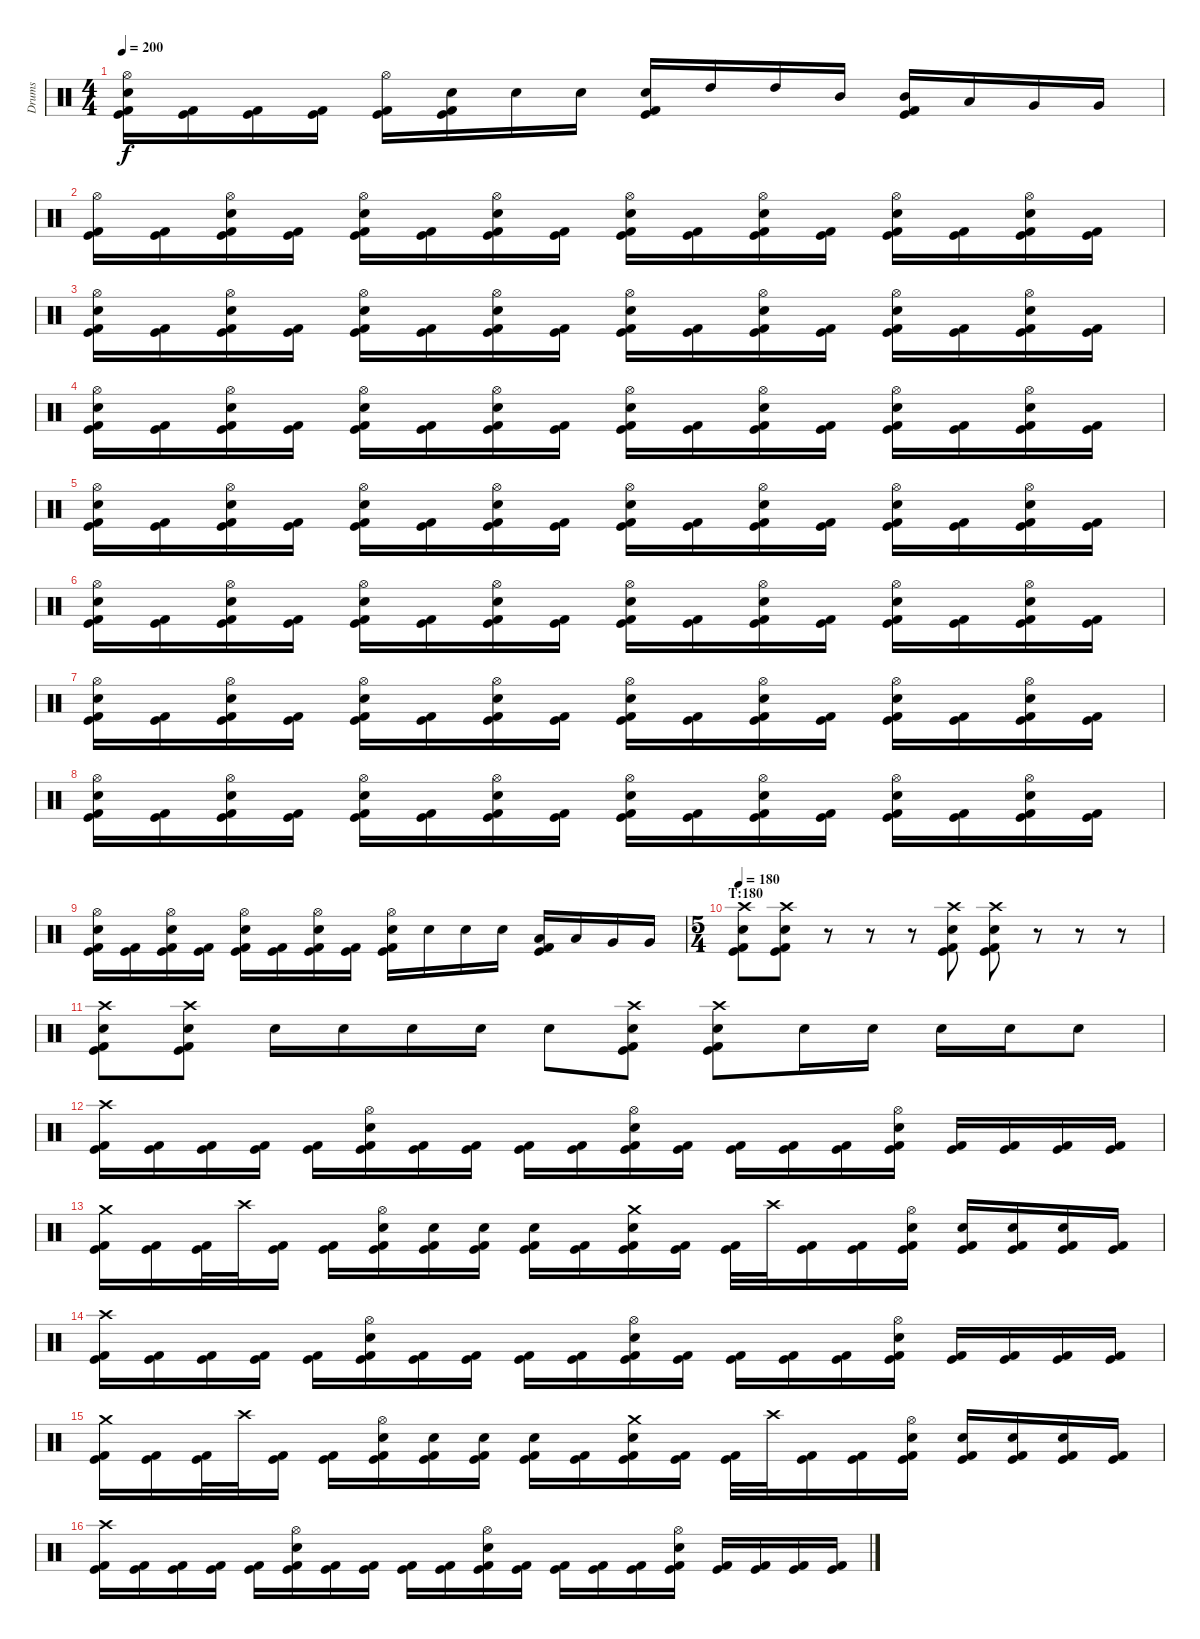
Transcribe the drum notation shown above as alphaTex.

\track ("Drums" "Drums") {instrument percussion}
\staff {score}
\articulation defaults
\ts (4 4)
\tempo 200
\clef neutral
\ks c
("Hi-Hat (open)" "Electric Snare (hit)" "Kick (hit)" "Kick (hit) 2").16{dy f} ("Kick (hit)" "Kick (hit) 2").16 ("Kick (hit)" "Kick (hit) 2").16 ("Kick (hit)" "Kick (hit) 2").16 ("Hi-Hat (open)" "Kick (hit)" "Kick (hit) 2").16 ("Electric Snare (hit)" "Kick (hit)" "Kick (hit) 2").16 "Electric Snare (hit)".16 "Electric Snare (hit)".16 ("Electric Snare (hit)" "Kick (hit)" "Kick (hit) 2").16 "High Tom (hit)".16 "High Tom (hit)".16 "Mid Tom (hit)".16 ("Mid Tom (hit)" "Kick (hit)" "Kick (hit) 2").16 "Low Tom (hit)".16 "Very Low Tom (hit)".16 "Very Low Tom (hit)".16 |
("Hi-Hat (open)" "Kick (hit)" "Kick (hit) 2").16 ("Kick (hit)" "Kick (hit) 2").16 ("Hi-Hat (open)" "Electric Snare (hit)" "Kick (hit)" "Kick (hit) 2").16 ("Kick (hit)" "Kick (hit) 2").16 ("Hi-Hat (open)" "Electric Snare (hit)" "Kick (hit)" "Kick (hit) 2").16 ("Kick (hit)" "Kick (hit) 2").16 ("Hi-Hat (open)" "Electric Snare (hit)" "Kick (hit)" "Kick (hit) 2").16 ("Kick (hit)" "Kick (hit) 2").16 ("Hi-Hat (open)" "Electric Snare (hit)" "Kick (hit)" "Kick (hit) 2").16 ("Kick (hit)" "Kick (hit) 2").16 ("Hi-Hat (open)" "Electric Snare (hit)" "Kick (hit)" "Kick (hit) 2").16 ("Kick (hit)" "Kick (hit) 2").16 ("Hi-Hat (open)" "Electric Snare (hit)" "Kick (hit)" "Kick (hit) 2").16 ("Kick (hit)" "Kick (hit) 2").16 ("Hi-Hat (open)" "Electric Snare (hit)" "Kick (hit)" "Kick (hit) 2").16 ("Kick (hit)" "Kick (hit) 2").16 |
("Hi-Hat (open)" "Electric Snare (hit)" "Kick (hit)" "Kick (hit) 2").16 ("Kick (hit)" "Kick (hit) 2").16 ("Hi-Hat (open)" "Electric Snare (hit)" "Kick (hit)" "Kick (hit) 2").16 ("Kick (hit)" "Kick (hit) 2").16 ("Hi-Hat (open)" "Electric Snare (hit)" "Kick (hit)" "Kick (hit) 2").16 ("Kick (hit)" "Kick (hit) 2").16 ("Hi-Hat (open)" "Electric Snare (hit)" "Kick (hit)" "Kick (hit) 2").16 ("Kick (hit)" "Kick (hit) 2").16 ("Hi-Hat (open)" "Electric Snare (hit)" "Kick (hit)" "Kick (hit) 2").16 ("Kick (hit)" "Kick (hit) 2").16 ("Hi-Hat (open)" "Electric Snare (hit)" "Kick (hit)" "Kick (hit) 2").16 ("Kick (hit)" "Kick (hit) 2").16 ("Hi-Hat (open)" "Electric Snare (hit)" "Kick (hit)" "Kick (hit) 2").16 ("Kick (hit)" "Kick (hit) 2").16 ("Hi-Hat (open)" "Electric Snare (hit)" "Kick (hit)" "Kick (hit) 2").16 ("Kick (hit)" "Kick (hit) 2").16 |
("Hi-Hat (open)" "Electric Snare (hit)" "Kick (hit)" "Kick (hit) 2").16 ("Kick (hit)" "Kick (hit) 2").16 ("Hi-Hat (open)" "Electric Snare (hit)" "Kick (hit)" "Kick (hit) 2").16 ("Kick (hit)" "Kick (hit) 2").16 ("Hi-Hat (open)" "Electric Snare (hit)" "Kick (hit)" "Kick (hit) 2").16 ("Kick (hit)" "Kick (hit) 2").16 ("Hi-Hat (open)" "Electric Snare (hit)" "Kick (hit)" "Kick (hit) 2").16 ("Kick (hit)" "Kick (hit) 2").16 ("Hi-Hat (open)" "Electric Snare (hit)" "Kick (hit)" "Kick (hit) 2").16 ("Kick (hit)" "Kick (hit) 2").16 ("Hi-Hat (open)" "Electric Snare (hit)" "Kick (hit)" "Kick (hit) 2").16 ("Kick (hit)" "Kick (hit) 2").16 ("Hi-Hat (open)" "Electric Snare (hit)" "Kick (hit)" "Kick (hit) 2").16 ("Kick (hit)" "Kick (hit) 2").16 ("Hi-Hat (open)" "Electric Snare (hit)" "Kick (hit)" "Kick (hit) 2").16 ("Kick (hit)" "Kick (hit) 2").16 |
("Hi-Hat (open)" "Electric Snare (hit)" "Kick (hit)" "Kick (hit) 2").16 ("Kick (hit)" "Kick (hit) 2").16 ("Hi-Hat (open)" "Electric Snare (hit)" "Kick (hit)" "Kick (hit) 2").16 ("Kick (hit)" "Kick (hit) 2").16 ("Hi-Hat (open)" "Electric Snare (hit)" "Kick (hit)" "Kick (hit) 2").16 ("Kick (hit)" "Kick (hit) 2").16 ("Hi-Hat (open)" "Electric Snare (hit)" "Kick (hit)" "Kick (hit) 2").16 ("Kick (hit)" "Kick (hit) 2").16 ("Hi-Hat (open)" "Electric Snare (hit)" "Kick (hit)" "Kick (hit) 2").16 ("Kick (hit)" "Kick (hit) 2").16 ("Hi-Hat (open)" "Electric Snare (hit)" "Kick (hit)" "Kick (hit) 2").16 ("Kick (hit)" "Kick (hit) 2").16 ("Hi-Hat (open)" "Electric Snare (hit)" "Kick (hit)" "Kick (hit) 2").16 ("Kick (hit)" "Kick (hit) 2").16 ("Hi-Hat (open)" "Electric Snare (hit)" "Kick (hit)" "Kick (hit) 2").16 ("Kick (hit)" "Kick (hit) 2").16 |
("Hi-Hat (open)" "Electric Snare (hit)" "Kick (hit)" "Kick (hit) 2").16 ("Kick (hit)" "Kick (hit) 2").16 ("Hi-Hat (open)" "Electric Snare (hit)" "Kick (hit)" "Kick (hit) 2").16 ("Kick (hit)" "Kick (hit) 2").16 ("Hi-Hat (open)" "Electric Snare (hit)" "Kick (hit)" "Kick (hit) 2").16 ("Kick (hit)" "Kick (hit) 2").16 ("Hi-Hat (open)" "Electric Snare (hit)" "Kick (hit)" "Kick (hit) 2").16 ("Kick (hit)" "Kick (hit) 2").16 ("Hi-Hat (open)" "Electric Snare (hit)" "Kick (hit)" "Kick (hit) 2").16 ("Kick (hit)" "Kick (hit) 2").16 ("Hi-Hat (open)" "Electric Snare (hit)" "Kick (hit)" "Kick (hit) 2").16 ("Kick (hit)" "Kick (hit) 2").16 ("Hi-Hat (open)" "Electric Snare (hit)" "Kick (hit)" "Kick (hit) 2").16 ("Kick (hit)" "Kick (hit) 2").16 ("Hi-Hat (open)" "Electric Snare (hit)" "Kick (hit)" "Kick (hit) 2").16 ("Kick (hit)" "Kick (hit) 2").16 |
("Hi-Hat (open)" "Electric Snare (hit)" "Kick (hit)" "Kick (hit) 2").16 ("Kick (hit)" "Kick (hit) 2").16 ("Hi-Hat (open)" "Electric Snare (hit)" "Kick (hit)" "Kick (hit) 2").16 ("Kick (hit)" "Kick (hit) 2").16 ("Hi-Hat (open)" "Electric Snare (hit)" "Kick (hit)" "Kick (hit) 2").16 ("Kick (hit)" "Kick (hit) 2").16 ("Hi-Hat (open)" "Electric Snare (hit)" "Kick (hit)" "Kick (hit) 2").16 ("Kick (hit)" "Kick (hit) 2").16 ("Hi-Hat (open)" "Electric Snare (hit)" "Kick (hit)" "Kick (hit) 2").16 ("Kick (hit)" "Kick (hit) 2").16 ("Hi-Hat (open)" "Electric Snare (hit)" "Kick (hit)" "Kick (hit) 2").16 ("Kick (hit)" "Kick (hit) 2").16 ("Hi-Hat (open)" "Electric Snare (hit)" "Kick (hit)" "Kick (hit) 2").16 ("Kick (hit)" "Kick (hit) 2").16 ("Hi-Hat (open)" "Electric Snare (hit)" "Kick (hit)" "Kick (hit) 2").16 ("Kick (hit)" "Kick (hit) 2").16 |
("Hi-Hat (open)" "Electric Snare (hit)" "Kick (hit)" "Kick (hit) 2").16 ("Kick (hit)" "Kick (hit) 2").16 ("Hi-Hat (open)" "Electric Snare (hit)" "Kick (hit)" "Kick (hit) 2").16 ("Kick (hit)" "Kick (hit) 2").16 ("Hi-Hat (open)" "Electric Snare (hit)" "Kick (hit)" "Kick (hit) 2").16 ("Kick (hit)" "Kick (hit) 2").16 ("Hi-Hat (open)" "Electric Snare (hit)" "Kick (hit)" "Kick (hit) 2").16 ("Kick (hit)" "Kick (hit) 2").16 ("Hi-Hat (open)" "Electric Snare (hit)" "Kick (hit)" "Kick (hit) 2").16 ("Kick (hit)" "Kick (hit) 2").16 ("Hi-Hat (open)" "Electric Snare (hit)" "Kick (hit)" "Kick (hit) 2").16 ("Kick (hit)" "Kick (hit) 2").16 ("Hi-Hat (open)" "Electric Snare (hit)" "Kick (hit)" "Kick (hit) 2").16 ("Kick (hit)" "Kick (hit) 2").16 ("Hi-Hat (open)" "Electric Snare (hit)" "Kick (hit)" "Kick (hit) 2").16 ("Kick (hit)" "Kick (hit) 2").16 |
("Hi-Hat (open)" "Electric Snare (hit)" "Kick (hit)" "Kick (hit) 2").16 ("Kick (hit)" "Kick (hit) 2").16 ("Hi-Hat (open)" "Electric Snare (hit)" "Kick (hit)" "Kick (hit) 2").16 ("Kick (hit)" "Kick (hit) 2").16 ("Hi-Hat (open)" "Electric Snare (hit)" "Kick (hit)" "Kick (hit) 2").16 ("Kick (hit)" "Kick (hit) 2").16 ("Hi-Hat (open)" "Electric Snare (hit)" "Kick (hit)" "Kick (hit) 2").16 ("Kick (hit)" "Kick (hit) 2").16 ("Hi-Hat (open)" "Electric Snare (hit)" "Kick (hit)" "Kick (hit) 2").16 "Electric Snare (hit)".16 "Electric Snare (hit)".16 "Electric Snare (hit)".16 ("Low Tom (hit)" "Kick (hit)" "Kick (hit) 2").16 "Low Tom (hit)".16 "Very Low Tom (hit)".16 "Very Low Tom (hit)".16 |
\ts (5 4)
\section ("" "T:180")
\tempo 180
("Crash high (hit)" "Electric Snare (hit)" "Kick (hit)" "Kick (hit) 2").8 ("Crash high (hit)" "Electric Snare (hit)" "Kick (hit)" "Kick (hit) 2").8 r.8 r.8 r.8 ("Crash high (hit)" "Electric Snare (hit)" "Kick (hit)" "Kick (hit) 2").8 ("Crash high (hit)" "Electric Snare (hit)" "Kick (hit)" "Kick (hit) 2").8 r.8 r.8 r.8 |
("Crash high (hit)" "Electric Snare (hit)" "Kick (hit)" "Kick (hit) 2").8 ("Crash high (hit)" "Electric Snare (hit)" "Kick (hit)" "Kick (hit) 2").8 "Electric Snare (hit)".16 "Electric Snare (hit)".16 "Electric Snare (hit)".16 "Electric Snare (hit)".16 "Electric Snare (hit)".8 ("Crash high (hit)" "Electric Snare (hit)" "Kick (hit)" "Kick (hit) 2").8 ("Crash high (hit)" "Electric Snare (hit)" "Kick (hit)" "Kick (hit) 2").8 "Electric Snare (hit)".16 "Electric Snare (hit)".16 "Electric Snare (hit)".16 "Electric Snare (hit)".16 "Electric Snare (hit)".8 |
("Crash high (hit)" "Kick (hit)" "Kick (hit) 2").16 ("Kick (hit)" "Kick (hit) 2").16 ("Kick (hit)" "Kick (hit) 2").16 ("Kick (hit)" "Kick (hit) 2").16 ("Kick (hit)" "Kick (hit) 2").16 ("Hi-Hat (open)" "Electric Snare (hit)" "Kick (hit)" "Kick (hit) 2").16 ("Kick (hit)" "Kick (hit) 2").16 ("Kick (hit)" "Kick (hit) 2").16 ("Kick (hit)" "Kick (hit) 2").16 ("Kick (hit)" "Kick (hit) 2").16 ("Hi-Hat (open)" "Electric Snare (hit)" "Kick (hit)" "Kick (hit) 2").16 ("Kick (hit)" "Kick (hit) 2").16 ("Kick (hit)" "Kick (hit) 2").16 ("Kick (hit)" "Kick (hit) 2").16 ("Kick (hit)" "Kick (hit) 2").16 ("Hi-Hat (open)" "Electric Snare (hit)" "Kick (hit)" "Kick (hit) 2").16 ("Kick (hit)" "Kick (hit) 2").16 ("Kick (hit)" "Kick (hit) 2").16 ("Kick (hit)" "Kick (hit) 2").16 ("Kick (hit)" "Kick (hit) 2").16 |
("Crash medium (hit)" "Kick (hit)" "Kick (hit) 2").16 ("Kick (hit)" "Kick (hit) 2").16 ("Kick (hit)" "Kick (hit) 2").32 "Crash high (hit)".32 ("Kick (hit)" "Kick (hit) 2").16 ("Kick (hit)" "Kick (hit) 2").16 ("Hi-Hat (open)" "Electric Snare (hit)" "Kick (hit)" "Kick (hit) 2").16 ("Electric Snare (hit)" "Kick (hit)" "Kick (hit) 2").16 ("Electric Snare (hit)" "Kick (hit)" "Kick (hit) 2").16 ("Electric Snare (hit)" "Kick (hit)" "Kick (hit) 2").16 ("Kick (hit)" "Kick (hit) 2").16 ("Crash medium (hit)" "Electric Snare (hit)" "Kick (hit)" "Kick (hit) 2").16 ("Kick (hit)" "Kick (hit) 2").16 ("Kick (hit)" "Kick (hit) 2").32 "Crash high (hit)".32 ("Kick (hit)" "Kick (hit) 2").16 ("Kick (hit)" "Kick (hit) 2").16 ("Hi-Hat (open)" "Electric Snare (hit)" "Kick (hit)" "Kick (hit) 2").16 ("Electric Snare (hit)" "Kick (hit)" "Kick (hit) 2").16 ("Electric Snare (hit)" "Kick (hit)" "Kick (hit) 2").16 ("Electric Snare (hit)" "Kick (hit)" "Kick (hit) 2").16 ("Kick (hit)" "Kick (hit) 2").16 |
("Crash high (hit)" "Kick (hit)" "Kick (hit) 2").16 ("Kick (hit)" "Kick (hit) 2").16 ("Kick (hit)" "Kick (hit) 2").16 ("Kick (hit)" "Kick (hit) 2").16 ("Kick (hit)" "Kick (hit) 2").16 ("Hi-Hat (open)" "Electric Snare (hit)" "Kick (hit)" "Kick (hit) 2").16 ("Kick (hit)" "Kick (hit) 2").16 ("Kick (hit)" "Kick (hit) 2").16 ("Kick (hit)" "Kick (hit) 2").16 ("Kick (hit)" "Kick (hit) 2").16 ("Hi-Hat (open)" "Electric Snare (hit)" "Kick (hit)" "Kick (hit) 2").16 ("Kick (hit)" "Kick (hit) 2").16 ("Kick (hit)" "Kick (hit) 2").16 ("Kick (hit)" "Kick (hit) 2").16 ("Kick (hit)" "Kick (hit) 2").16 ("Hi-Hat (open)" "Electric Snare (hit)" "Kick (hit)" "Kick (hit) 2").16 ("Kick (hit)" "Kick (hit) 2").16 ("Kick (hit)" "Kick (hit) 2").16 ("Kick (hit)" "Kick (hit) 2").16 ("Kick (hit)" "Kick (hit) 2").16 |
("Crash medium (hit)" "Kick (hit)" "Kick (hit) 2").16 ("Kick (hit)" "Kick (hit) 2").16 ("Kick (hit)" "Kick (hit) 2").32 "Crash high (hit)".32 ("Kick (hit)" "Kick (hit) 2").16 ("Kick (hit)" "Kick (hit) 2").16 ("Hi-Hat (open)" "Electric Snare (hit)" "Kick (hit)" "Kick (hit) 2").16 ("Electric Snare (hit)" "Kick (hit)" "Kick (hit) 2").16 ("Electric Snare (hit)" "Kick (hit)" "Kick (hit) 2").16 ("Electric Snare (hit)" "Kick (hit)" "Kick (hit) 2").16 ("Kick (hit)" "Kick (hit) 2").16 ("Crash medium (hit)" "Electric Snare (hit)" "Kick (hit)" "Kick (hit) 2").16 ("Kick (hit)" "Kick (hit) 2").16 ("Kick (hit)" "Kick (hit) 2").32 "Crash high (hit)".32 ("Kick (hit)" "Kick (hit) 2").16 ("Kick (hit)" "Kick (hit) 2").16 ("Hi-Hat (open)" "Electric Snare (hit)" "Kick (hit)" "Kick (hit) 2").16 ("Electric Snare (hit)" "Kick (hit)" "Kick (hit) 2").16 ("Electric Snare (hit)" "Kick (hit)" "Kick (hit) 2").16 ("Electric Snare (hit)" "Kick (hit)" "Kick (hit) 2").16 ("Kick (hit)" "Kick (hit) 2").16 |
("Crash high (hit)" "Kick (hit)" "Kick (hit) 2").16 ("Kick (hit)" "Kick (hit) 2").16 ("Kick (hit)" "Kick (hit) 2").16 ("Kick (hit)" "Kick (hit) 2").16 ("Kick (hit)" "Kick (hit) 2").16 ("Hi-Hat (open)" "Electric Snare (hit)" "Kick (hit)" "Kick (hit) 2").16 ("Kick (hit)" "Kick (hit) 2").16 ("Kick (hit)" "Kick (hit) 2").16 ("Kick (hit)" "Kick (hit) 2").16 ("Kick (hit)" "Kick (hit) 2").16 ("Hi-Hat (open)" "Electric Snare (hit)" "Kick (hit)" "Kick (hit) 2").16 ("Kick (hit)" "Kick (hit) 2").16 ("Kick (hit)" "Kick (hit) 2").16 ("Kick (hit)" "Kick (hit) 2").16 ("Kick (hit)" "Kick (hit) 2").16 ("Hi-Hat (open)" "Electric Snare (hit)" "Kick (hit)" "Kick (hit) 2").16 ("Kick (hit)" "Kick (hit) 2").16 ("Kick (hit)" "Kick (hit) 2").16 ("Kick (hit)" "Kick (hit) 2").16 ("Kick (hit)" "Kick (hit) 2").16
